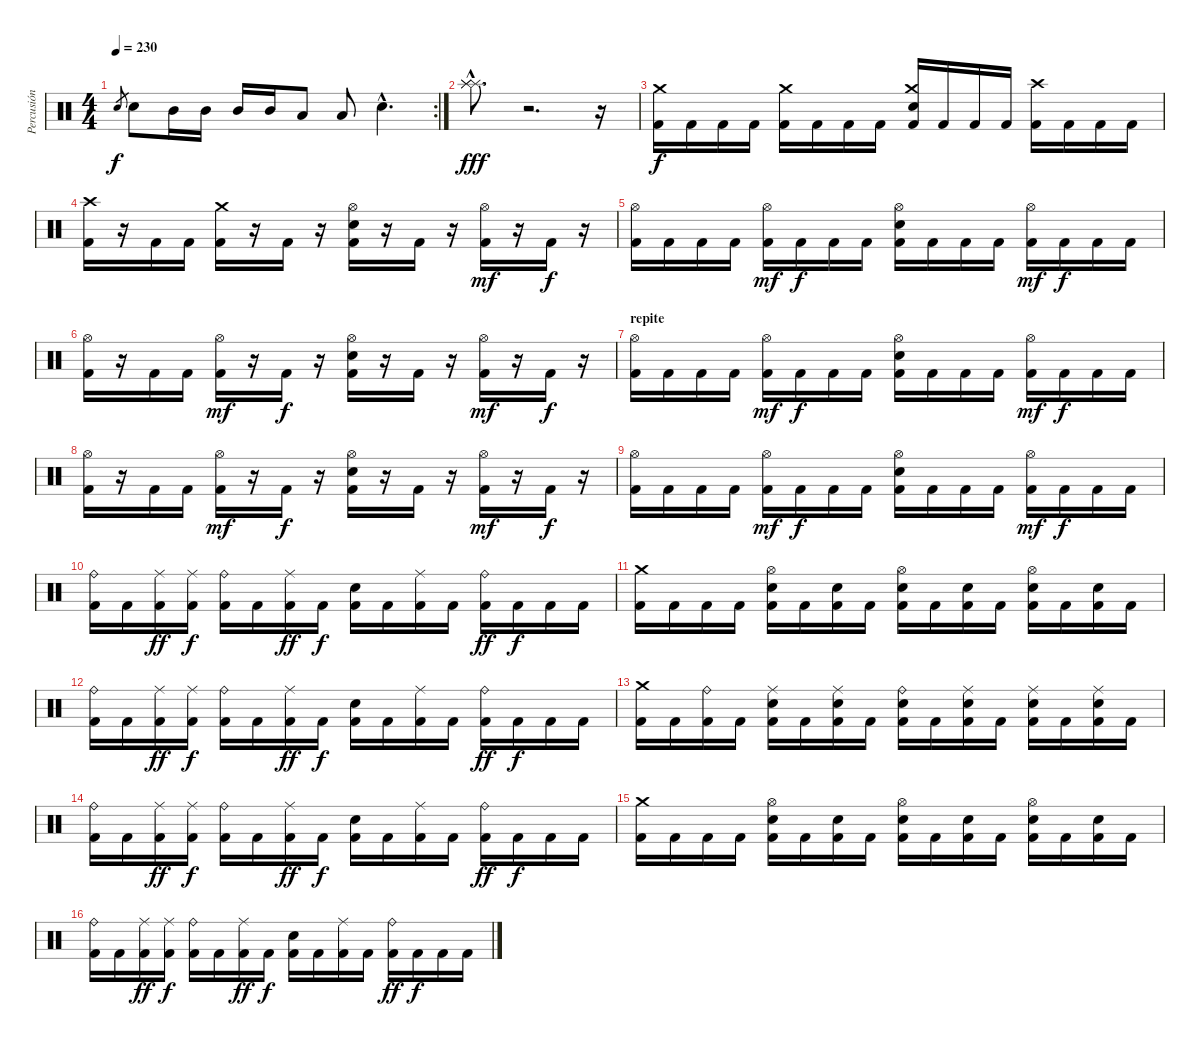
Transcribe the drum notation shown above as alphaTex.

\track ("Percusión" "Percusión") {instrument percussion}
\staff {score}
\articulation defaults
\rc 2
\ts (4 4)
\tempo 230
\clef neutral
\ks c "Snare (hit) 2".8{gr dy f} "Snare (hit) 2".8 "Mid Tom (hit)".16 "Mid Tom (hit)".16 "Mid Tom (hit)".16 "Mid Tom (hit)".16 "Low Tom (hit)".8 "Low Tom (hit)".8 "Snare (hit) 2"{hac}.4{d}
|
("Splash (hit)"{hac} "Splash (hit)"{hac} "Splash (hit)"{hac}).8{d dy fff} r.2{d volume 0} r.16 |
("Crash medium (hit)" "Kick (hit) 2").16{dy f volume 14} "Kick (hit) 2".16 "Kick (hit) 2".16 "Kick (hit) 2".16 ("Crash medium (hit)" "Kick (hit) 2").16 "Kick (hit) 2".16 "Kick (hit) 2".16 "Kick (hit) 2".16 ("Crash medium (hit)" "Kick (hit) 2" "Snare (hit) 2").16 "Kick (hit) 2".16 "Kick (hit) 2".16 "Kick (hit) 2".16 ("Crash high (hit)" "Kick (hit) 2").16 "Kick (hit) 2".16 "Kick (hit) 2".16 "Kick (hit) 2".16 |
("Crash high (hit)" "Kick (hit) 2").16{volume 14} r.16 "Kick (hit) 2".16 "Kick (hit) 2".16 ("Crash medium (hit)" "Kick (hit) 2").16 r.16 "Kick (hit) 2".16 r.16 ("Hi-Hat (open)" "Kick (hit) 2" "Snare (hit) 2").16 r.16 "Kick (hit) 2".16 r.16 ("Hi-Hat (open)" "Kick (hit) 2").16{dy mf} r.16 "Kick (hit) 2".16{dy f} r.16 |
("Hi-Hat (open)" "Kick (hit) 2").16{volume 14} "Kick (hit) 2".16 "Kick (hit) 2".16 "Kick (hit) 2".16 ("Hi-Hat (open)" "Kick (hit) 2").16{dy mf} "Kick (hit) 2".16{dy f} "Kick (hit) 2".16 "Kick (hit) 2".16 ("Hi-Hat (open)" "Kick (hit) 2" "Snare (hit) 2").16 "Kick (hit) 2".16 "Kick (hit) 2".16 "Kick (hit) 2".16 ("Hi-Hat (open)" "Kick (hit) 2").16{dy mf} "Kick (hit) 2".16{dy f} "Kick (hit) 2".16 "Kick (hit) 2".16 |
("Hi-Hat (open)" "Kick (hit) 2").16{volume 14} r.16 "Kick (hit) 2".16 "Kick (hit) 2".16 ("Hi-Hat (open)" "Kick (hit) 2").16{dy mf} r.16 "Kick (hit) 2".16{dy f} r.16 ("Hi-Hat (open)" "Kick (hit) 2" "Snare (hit) 2").16 r.16 "Kick (hit) 2".16 r.16 ("Hi-Hat (open)" "Kick (hit) 2").16{dy mf} r.16 "Kick (hit) 2".16{dy f} r.16 |
\section ("" "repite")
("Hi-Hat (open)" "Kick (hit) 2").16{volume 14} "Kick (hit) 2".16 "Kick (hit) 2".16 "Kick (hit) 2".16 ("Hi-Hat (open)" "Kick (hit) 2").16{dy mf} "Kick (hit) 2".16{dy f} "Kick (hit) 2".16 "Kick (hit) 2".16 ("Hi-Hat (open)" "Kick (hit) 2" "Snare (hit) 2").16 "Kick (hit) 2".16 "Kick (hit) 2".16 "Kick (hit) 2".16 ("Hi-Hat (open)" "Kick (hit) 2").16{dy mf} "Kick (hit) 2".16{dy f} "Kick (hit) 2".16 "Kick (hit) 2".16 |
("Hi-Hat (open)" "Kick (hit) 2").16{volume 14} r.16 "Kick (hit) 2".16 "Kick (hit) 2".16 ("Hi-Hat (open)" "Kick (hit) 2").16{dy mf} r.16 "Kick (hit) 2".16{dy f} r.16 ("Hi-Hat (open)" "Kick (hit) 2" "Snare (hit) 2").16 r.16 "Kick (hit) 2".16 r.16 ("Hi-Hat (open)" "Kick (hit) 2").16{dy mf} r.16 "Kick (hit) 2".16{dy f} r.16 |
("Hi-Hat (open)" "Kick (hit) 2").16{volume 14} "Kick (hit) 2".16 "Kick (hit) 2".16 "Kick (hit) 2".16 ("Hi-Hat (open)" "Kick (hit) 2").16{dy mf} "Kick (hit) 2".16{dy f} "Kick (hit) 2".16 "Kick (hit) 2".16 ("Hi-Hat (open)" "Kick (hit) 2" "Snare (hit) 2").16 "Kick (hit) 2".16 "Kick (hit) 2".16 "Kick (hit) 2".16 ("Hi-Hat (open)" "Kick (hit) 2").16{dy mf} "Kick (hit) 2".16{dy f} "Kick (hit) 2".16 "Kick (hit) 2".16 |
("Ride (bell)" "Kick (hit) 2").16{volume 14} "Kick (hit) 2".16 ("Ride (middle)" "Kick (hit) 2").16{dy ff} ("Ride (middle)" "Kick (hit) 2").16{dy f} ("Ride (bell)" "Kick (hit) 2").16 "Kick (hit) 2".16 ("Ride (middle)" "Kick (hit) 2").16{dy ff} "Kick (hit) 2".16{dy f} ("Kick (hit) 2" "Snare (hit) 2").16 "Kick (hit) 2".16 ("Ride (middle)" "Kick (hit) 2").16 "Kick (hit) 2".16 ("Ride (bell)" "Kick (hit) 2").16{dy ff} "Kick (hit) 2".16{dy f} "Kick (hit) 2".16 "Kick (hit) 2".16 |
("Crash medium (hit)" "Kick (hit) 2").16 "Kick (hit) 2".16 "Kick (hit) 2".16 "Kick (hit) 2".16 ("Hi-Hat (open)" "Kick (hit) 2" "Snare (hit) 2").16 "Kick (hit) 2".16 ("Kick (hit) 2" "Snare (hit) 2").16 "Kick (hit) 2".16 ("Hi-Hat (open)" "Kick (hit) 2" "Snare (hit) 2").16 "Kick (hit) 2".16 ("Kick (hit) 2" "Snare (hit) 2").16 "Kick (hit) 2".16 ("Hi-Hat (open)" "Kick (hit) 2" "Snare (hit) 2").16 "Kick (hit) 2".16 ("Kick (hit) 2" "Snare (hit) 2").16 "Kick (hit) 2".16 |
("Ride (bell)" "Kick (hit) 2").16{volume 14} "Kick (hit) 2".16 ("Ride (middle)" "Kick (hit) 2").16{dy ff} ("Ride (middle)" "Kick (hit) 2").16{dy f} ("Ride (bell)" "Kick (hit) 2").16 "Kick (hit) 2".16 ("Ride (middle)" "Kick (hit) 2").16{dy ff} "Kick (hit) 2".16{dy f} ("Kick (hit) 2" "Snare (hit) 2").16 "Kick (hit) 2".16 ("Ride (middle)" "Kick (hit) 2").16 "Kick (hit) 2".16 ("Ride (bell)" "Kick (hit) 2").16{dy ff} "Kick (hit) 2".16{dy f} "Kick (hit) 2".16 "Kick (hit) 2".16 |
("Crash medium (hit)" "Kick (hit) 2").16 "Kick (hit) 2".16 ("Ride (bell)" "Kick (hit) 2").16 "Kick (hit) 2".16 ("Ride (middle)" "Kick (hit) 2" "Snare (hit) 2").16 "Kick (hit) 2".16 ("Ride (middle)" "Kick (hit) 2" "Snare (hit) 2").16 "Kick (hit) 2".16 ("Ride (bell)" "Kick (hit) 2" "Snare (hit) 2").16 "Kick (hit) 2".16 ("Ride (middle)" "Kick (hit) 2" "Snare (hit) 2").16 "Kick (hit) 2".16 ("Ride (middle)" "Kick (hit) 2" "Snare (hit) 2").16 "Kick (hit) 2".16 ("Ride (middle)" "Kick (hit) 2" "Snare (hit) 2").16 "Kick (hit) 2".16 |
("Ride (bell)" "Kick (hit) 2").16{volume 14} "Kick (hit) 2".16 ("Ride (middle)" "Kick (hit) 2").16{dy ff} ("Ride (middle)" "Kick (hit) 2").16{dy f} ("Ride (bell)" "Kick (hit) 2").16 "Kick (hit) 2".16 ("Ride (middle)" "Kick (hit) 2").16{dy ff} "Kick (hit) 2".16{dy f} ("Kick (hit) 2" "Snare (hit) 2").16 "Kick (hit) 2".16 ("Ride (middle)" "Kick (hit) 2").16 "Kick (hit) 2".16 ("Ride (bell)" "Kick (hit) 2").16{dy ff} "Kick (hit) 2".16{dy f} "Kick (hit) 2".16 "Kick (hit) 2".16 |
("Crash medium (hit)" "Kick (hit) 2").16 "Kick (hit) 2".16 "Kick (hit) 2".16 "Kick (hit) 2".16 ("Hi-Hat (open)" "Kick (hit) 2" "Snare (hit) 2").16 "Kick (hit) 2".16 ("Kick (hit) 2" "Snare (hit) 2").16 "Kick (hit) 2".16 ("Hi-Hat (open)" "Kick (hit) 2" "Snare (hit) 2").16 "Kick (hit) 2".16 ("Kick (hit) 2" "Snare (hit) 2").16 "Kick (hit) 2".16 ("Hi-Hat (open)" "Kick (hit) 2" "Snare (hit) 2").16 "Kick (hit) 2".16 ("Kick (hit) 2" "Snare (hit) 2").16 "Kick (hit) 2".16 |
("Ride (bell)" "Kick (hit) 2").16{volume 14} "Kick (hit) 2".16 ("Ride (middle)" "Kick (hit) 2").16{dy ff} ("Ride (middle)" "Kick (hit) 2").16{dy f} ("Ride (bell)" "Kick (hit) 2").16 "Kick (hit) 2".16 ("Ride (middle)" "Kick (hit) 2").16{dy ff} "Kick (hit) 2".16{dy f} ("Kick (hit) 2" "Snare (hit) 2").16 "Kick (hit) 2".16 ("Ride (middle)" "Kick (hit) 2").16 "Kick (hit) 2".16 ("Ride (bell)" "Kick (hit) 2").16{dy ff} "Kick (hit) 2".16{dy f} "Kick (hit) 2".16 "Kick (hit) 2".16
